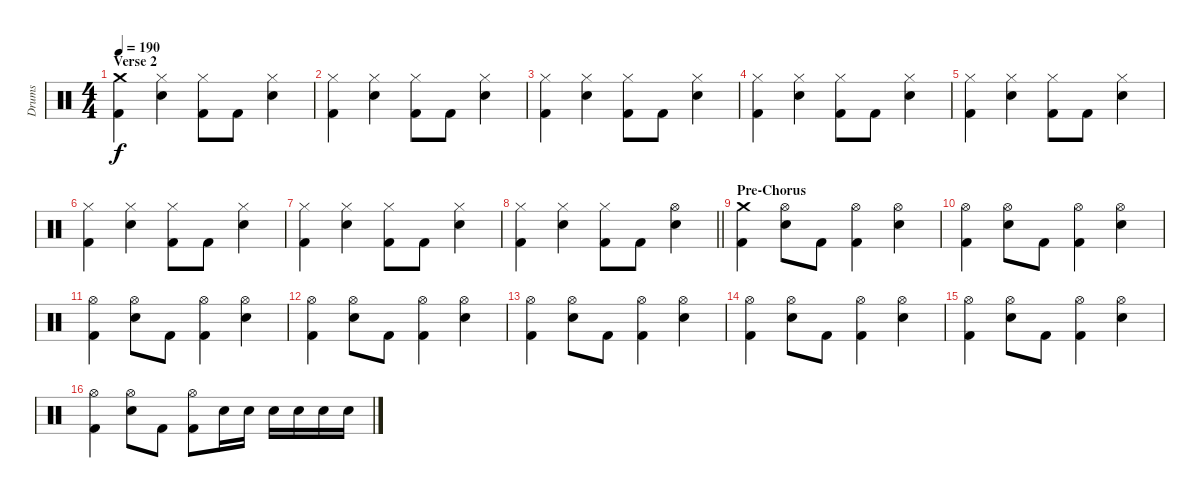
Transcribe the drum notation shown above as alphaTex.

\track ("Drums" "Drums") {instrument percussion}
\staff {score}
\articulation defaults
\ts (4 4)
\section ("" "Verse 2")
\tempo 190
\clef neutral
\ks c
("Crash medium (hit)" "Kick (hit) 2").4{dy f} ("Hi-Hat (closed)" "Electric Snare (hit)").4 ("Hi-Hat (closed)" "Kick (hit) 2").8 "Kick (hit) 2".8 ("Hi-Hat (closed)" "Electric Snare (hit)").4 |
("Hi-Hat (closed)" "Kick (hit) 2").4 ("Hi-Hat (closed)" "Electric Snare (hit)").4 ("Hi-Hat (closed)" "Kick (hit) 2").8 "Kick (hit) 2".8 ("Hi-Hat (closed)" "Electric Snare (hit)").4 |
("Hi-Hat (closed)" "Kick (hit) 2").4 ("Hi-Hat (closed)" "Electric Snare (hit)").4 ("Hi-Hat (closed)" "Kick (hit) 2").8 "Kick (hit) 2".8 ("Hi-Hat (closed)" "Electric Snare (hit)").4 |
("Hi-Hat (closed)" "Kick (hit) 2").4 ("Hi-Hat (closed)" "Electric Snare (hit)").4 ("Hi-Hat (closed)" "Kick (hit) 2").8 "Kick (hit) 2".8 ("Hi-Hat (closed)" "Electric Snare (hit)").4 |
("Hi-Hat (closed)" "Kick (hit) 2").4 ("Hi-Hat (closed)" "Electric Snare (hit)").4 ("Hi-Hat (closed)" "Kick (hit) 2").8 "Kick (hit) 2".8 ("Hi-Hat (closed)" "Electric Snare (hit)").4 |
("Hi-Hat (closed)" "Kick (hit) 2").4 ("Hi-Hat (closed)" "Electric Snare (hit)").4 ("Hi-Hat (closed)" "Kick (hit) 2").8 "Kick (hit) 2".8 ("Hi-Hat (closed)" "Electric Snare (hit)").4 |
("Hi-Hat (closed)" "Kick (hit) 2").4 ("Hi-Hat (closed)" "Electric Snare (hit)").4 ("Hi-Hat (closed)" "Kick (hit) 2").8 "Kick (hit) 2".8 ("Hi-Hat (closed)" "Electric Snare (hit)").4 |
\barLineRight lightlight
("Hi-Hat (closed)" "Kick (hit) 2").4 ("Hi-Hat (closed)" "Electric Snare (hit)").4 ("Hi-Hat (closed)" "Kick (hit) 2").8 "Kick (hit) 2".8 ("Hi-Hat (open)" "Electric Snare (hit)").4 |
\section ("" "Pre-Chorus")
("Crash medium (hit)" "Kick (hit) 2").4 ("Hi-Hat (open)" "Electric Snare (hit)").8 "Kick (hit) 2".8 ("Hi-Hat (open)" "Kick (hit) 2").4 ("Hi-Hat (open)" "Electric Snare (hit)").4 |
("Hi-Hat (open)" "Kick (hit) 2").4 ("Hi-Hat (open)" "Electric Snare (hit)").8 "Kick (hit) 2".8 ("Hi-Hat (open)" "Kick (hit) 2").4 ("Hi-Hat (open)" "Electric Snare (hit)").4 |
("Hi-Hat (open)" "Kick (hit) 2").4 ("Hi-Hat (open)" "Electric Snare (hit)").8 "Kick (hit) 2".8 ("Hi-Hat (open)" "Kick (hit) 2").4 ("Hi-Hat (open)" "Electric Snare (hit)").4 |
("Hi-Hat (open)" "Kick (hit) 2").4 ("Hi-Hat (open)" "Electric Snare (hit)").8 "Kick (hit) 2".8 ("Hi-Hat (open)" "Kick (hit) 2").4 ("Hi-Hat (open)" "Electric Snare (hit)").4 |
("Hi-Hat (open)" "Kick (hit) 2").4 ("Hi-Hat (open)" "Electric Snare (hit)").8 "Kick (hit) 2".8 ("Hi-Hat (open)" "Kick (hit) 2").4 ("Hi-Hat (open)" "Electric Snare (hit)").4 |
("Hi-Hat (open)" "Kick (hit) 2").4 ("Hi-Hat (open)" "Electric Snare (hit)").8 "Kick (hit) 2".8 ("Hi-Hat (open)" "Kick (hit) 2").4 ("Hi-Hat (open)" "Electric Snare (hit)").4 |
("Hi-Hat (open)" "Kick (hit) 2").4 ("Hi-Hat (open)" "Electric Snare (hit)").8 "Kick (hit) 2".8 ("Hi-Hat (open)" "Kick (hit) 2").4 ("Hi-Hat (open)" "Electric Snare (hit)").4 |
("Hi-Hat (open)" "Kick (hit) 2").4 ("Hi-Hat (open)" "Electric Snare (hit)").8 "Kick (hit) 2".8 ("Hi-Hat (open)" "Kick (hit) 2").8 "Electric Snare (hit)".16 "Electric Snare (hit)".16 "Electric Snare (hit)".16 "Electric Snare (hit)".16 "Electric Snare (hit)".16 "Electric Snare (hit)".16
